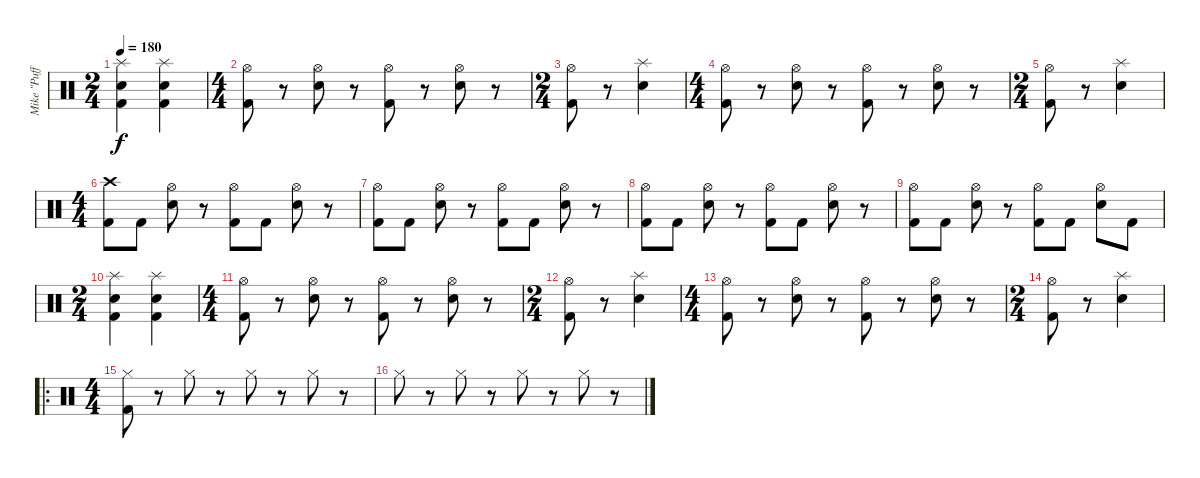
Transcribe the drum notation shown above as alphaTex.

\track ("Mike \"Puffy\" Bordin" "Mike \"Puff") {instrument percussion}
\staff {score}
\articulation defaults
\ts (2 4)
\tempo 180
\clef neutral
\ks c
("Splash (hit)" "Electric Snare (hit)" "Kick (hit) 2").4{dy f} ("Splash (hit)" "Electric Snare (hit)" "Kick (hit) 2").4 |
\ts (4 4)
("Hi-Hat (open)" "Kick (hit) 2").8 r.8 ("Hi-Hat (open)" "Electric Snare (hit)").8 r.8 ("Hi-Hat (open)" "Kick (hit) 2").8 r.8 ("Hi-Hat (open)" "Electric Snare (hit)").8 r.8 |
\ts (2 4)
("Hi-Hat (open)" "Kick (hit) 2").8 r.8 ("Splash (hit)" "Electric Snare (hit)").4 |
\ts (4 4)
("Hi-Hat (open)" "Kick (hit) 2").8 r.8 ("Hi-Hat (open)" "Electric Snare (hit)").8 r.8 ("Hi-Hat (open)" "Kick (hit) 2").8 r.8 ("Hi-Hat (open)" "Electric Snare (hit)").8 r.8 |
\ts (2 4)
("Hi-Hat (open)" "Kick (hit) 2").8 r.8 ("Splash (hit)" "Electric Snare (hit)").4 |
\ts (4 4)
("Crash high (hit)" "Kick (hit) 2").8 "Kick (hit) 2".8 ("Hi-Hat (open)" "Electric Snare (hit)").8 r.8 ("Hi-Hat (open)" "Kick (hit) 2").8 "Kick (hit) 2".8 ("Hi-Hat (open)" "Electric Snare (hit)").8 r.8 |
("Hi-Hat (open)" "Kick (hit) 2").8 "Kick (hit) 2".8 ("Hi-Hat (open)" "Electric Snare (hit)").8 r.8 ("Hi-Hat (open)" "Kick (hit) 2").8 "Kick (hit) 2".8 ("Hi-Hat (open)" "Electric Snare (hit)").8 r.8 |
("Hi-Hat (open)" "Kick (hit) 2").8 "Kick (hit) 2".8 ("Hi-Hat (open)" "Electric Snare (hit)").8 r.8 ("Hi-Hat (open)" "Kick (hit) 2").8 "Kick (hit) 2".8 ("Hi-Hat (open)" "Electric Snare (hit)").8 r.8 |
("Hi-Hat (open)" "Kick (hit) 2").8 "Kick (hit) 2".8 ("Hi-Hat (open)" "Electric Snare (hit)").8 r.8 ("Hi-Hat (open)" "Kick (hit) 2").8 "Kick (hit) 2".8 ("Hi-Hat (open)" "Electric Snare (hit)").8 "Kick (hit) 2".8 |
\ts (2 4)
("Splash (hit)" "Electric Snare (hit)" "Kick (hit) 2").4 ("Splash (hit)" "Electric Snare (hit)" "Kick (hit) 2").4 |
\ts (4 4)
("Hi-Hat (open)" "Kick (hit) 2").8 r.8 ("Hi-Hat (open)" "Electric Snare (hit)").8 r.8 ("Hi-Hat (open)" "Kick (hit) 2").8 r.8 ("Hi-Hat (open)" "Electric Snare (hit)").8 r.8 |
\ts (2 4)
("Hi-Hat (open)" "Kick (hit) 2").8 r.8 ("Splash (hit)" "Electric Snare (hit)").4 |
\ts (4 4)
("Hi-Hat (open)" "Kick (hit) 2").8 r.8 ("Hi-Hat (open)" "Electric Snare (hit)").8 r.8 ("Hi-Hat (open)" "Kick (hit) 2").8 r.8 ("Hi-Hat (open)" "Electric Snare (hit)").8 r.8 |
\ts (2 4)
("Hi-Hat (open)" "Kick (hit) 2").8 r.8 ("Splash (hit)" "Electric Snare (hit)").4 |
\ro
\ts (4 4)
("Hi-Hat (closed)" "Kick (hit) 2").8 r.8 "Hi-Hat (closed)".8 r.8 "Hi-Hat (closed)".8 r.8 "Hi-Hat (closed)".8 r.8 |
"Hi-Hat (closed)".8 r.8 "Hi-Hat (closed)".8 r.8 "Hi-Hat (closed)".8 r.8 "Hi-Hat (closed)".8 r.8
